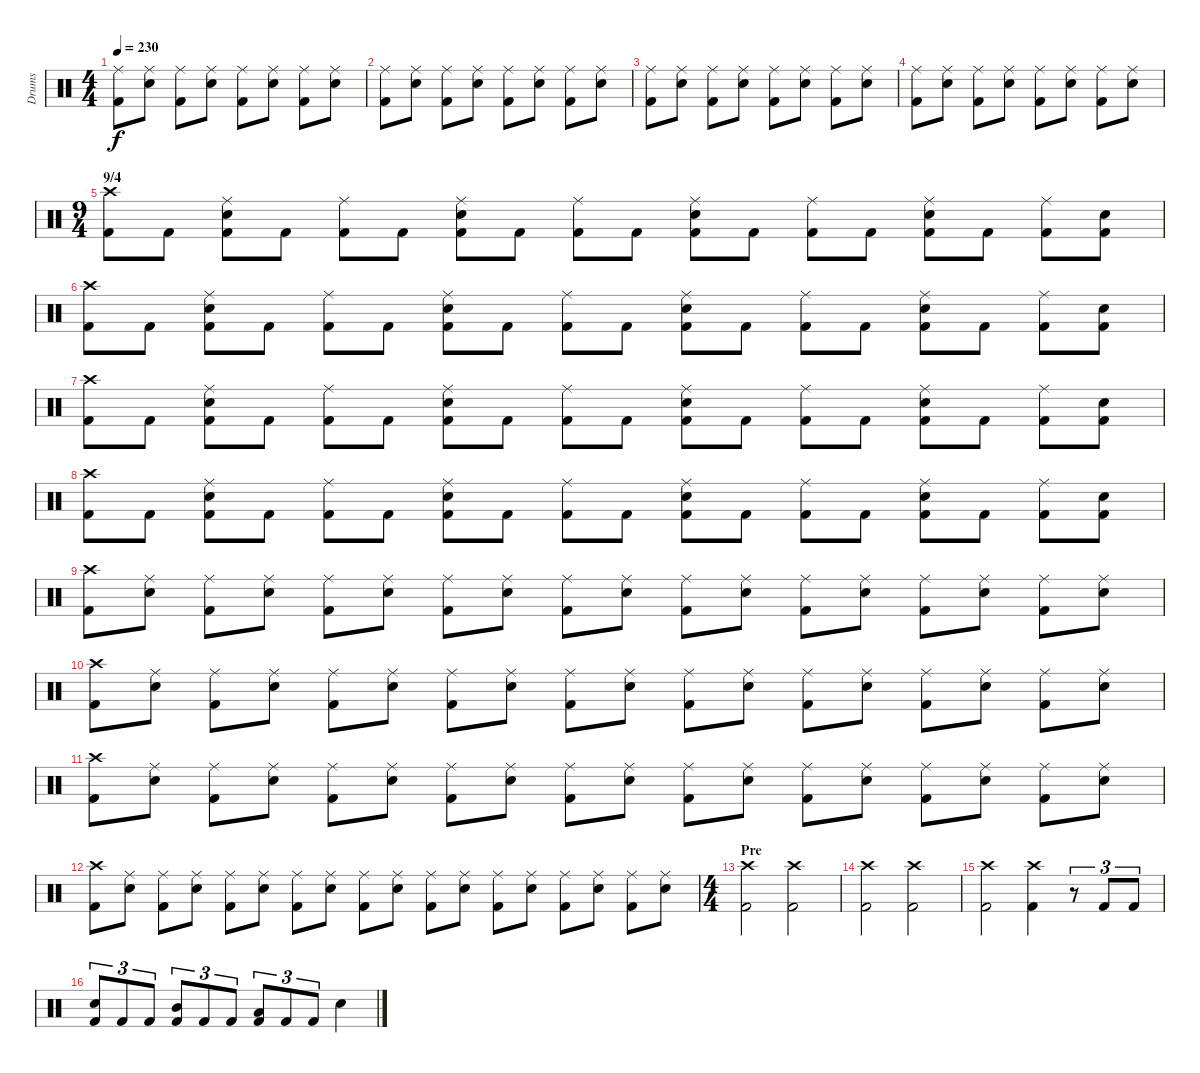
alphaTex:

\track ("Drums" "Drums") {instrument percussion}
\staff {score}
\articulation defaults
\ts (4 4)
\tempo 230
\clef neutral
\ks c
("Ride (middle)" "Kick (hit) 2").8{dy f} ("Ride (middle)" "Snare (hit) 2").8 ("Ride (middle)" "Kick (hit) 2").8 ("Ride (middle)" "Snare (hit) 2").8 ("Ride (middle)" "Kick (hit) 2").8 ("Ride (middle)" "Snare (hit) 2").8 ("Ride (middle)" "Kick (hit) 2").8 ("Ride (middle)" "Snare (hit) 2").8 |
("Ride (middle)" "Kick (hit) 2").8 ("Ride (middle)" "Snare (hit) 2").8 ("Ride (middle)" "Kick (hit) 2").8 ("Ride (middle)" "Snare (hit) 2").8 ("Ride (middle)" "Kick (hit) 2").8 ("Ride (middle)" "Snare (hit) 2").8 ("Ride (middle)" "Kick (hit) 2").8 ("Ride (middle)" "Snare (hit) 2").8 |
("Ride (middle)" "Kick (hit) 2").8 ("Ride (middle)" "Snare (hit) 2").8 ("Ride (middle)" "Kick (hit) 2").8 ("Ride (middle)" "Snare (hit) 2").8 ("Ride (middle)" "Kick (hit) 2").8 ("Ride (middle)" "Snare (hit) 2").8 ("Ride (middle)" "Kick (hit) 2").8 ("Ride (middle)" "Snare (hit) 2").8 |
("Ride (middle)" "Kick (hit) 2").8 ("Ride (middle)" "Snare (hit) 2").8 ("Ride (middle)" "Kick (hit) 2").8 ("Ride (middle)" "Snare (hit) 2").8 ("Ride (middle)" "Kick (hit) 2").8 ("Ride (middle)" "Snare (hit) 2").8 ("Ride (middle)" "Kick (hit) 2").8 ("Ride (middle)" "Snare (hit) 2").8 |
\ts (9 4)
\section ("" "9/4")
("Crash high (hit)" "Kick (hit) 2").8 "Kick (hit) 2".8 ("Ride (middle)" "Snare (hit) 2" "Kick (hit) 2").8 "Kick (hit) 2".8 ("Ride (middle)" "Kick (hit) 2").8 "Kick (hit) 2".8 ("Ride (middle)" "Snare (hit) 2" "Kick (hit) 2").8 "Kick (hit) 2".8 ("Ride (middle)" "Kick (hit) 2").8 "Kick (hit) 2".8 ("Ride (middle)" "Snare (hit) 2" "Kick (hit) 2").8 "Kick (hit) 2".8 ("Ride (middle)" "Kick (hit) 2").8 "Kick (hit) 2".8 ("Ride (middle)" "Snare (hit) 2" "Kick (hit) 2").8 "Kick (hit) 2".8 ("Ride (middle)" "Kick (hit) 2").8 ("Snare (hit) 2" "Kick (hit) 2").8 |
("Crash high (hit)" "Kick (hit) 2").8 "Kick (hit) 2".8 ("Ride (middle)" "Snare (hit) 2" "Kick (hit) 2").8 "Kick (hit) 2".8 ("Ride (middle)" "Kick (hit) 2").8 "Kick (hit) 2".8 ("Ride (middle)" "Snare (hit) 2" "Kick (hit) 2").8 "Kick (hit) 2".8 ("Ride (middle)" "Kick (hit) 2").8 "Kick (hit) 2".8 ("Ride (middle)" "Snare (hit) 2" "Kick (hit) 2").8 "Kick (hit) 2".8 ("Ride (middle)" "Kick (hit) 2").8 "Kick (hit) 2".8 ("Ride (middle)" "Snare (hit) 2" "Kick (hit) 2").8 "Kick (hit) 2".8 ("Ride (middle)" "Kick (hit) 2").8 ("Snare (hit) 2" "Kick (hit) 2").8 |
("Crash high (hit)" "Kick (hit) 2").8 "Kick (hit) 2".8 ("Ride (middle)" "Snare (hit) 2" "Kick (hit) 2").8 "Kick (hit) 2".8 ("Ride (middle)" "Kick (hit) 2").8 "Kick (hit) 2".8 ("Ride (middle)" "Snare (hit) 2" "Kick (hit) 2").8 "Kick (hit) 2".8 ("Ride (middle)" "Kick (hit) 2").8 "Kick (hit) 2".8 ("Ride (middle)" "Snare (hit) 2" "Kick (hit) 2").8 "Kick (hit) 2".8 ("Ride (middle)" "Kick (hit) 2").8 "Kick (hit) 2".8 ("Ride (middle)" "Snare (hit) 2" "Kick (hit) 2").8 "Kick (hit) 2".8 ("Ride (middle)" "Kick (hit) 2").8 ("Snare (hit) 2" "Kick (hit) 2").8 |
("Crash high (hit)" "Kick (hit) 2").8 "Kick (hit) 2".8 ("Ride (middle)" "Snare (hit) 2" "Kick (hit) 2").8 "Kick (hit) 2".8 ("Ride (middle)" "Kick (hit) 2").8 "Kick (hit) 2".8 ("Ride (middle)" "Snare (hit) 2" "Kick (hit) 2").8 "Kick (hit) 2".8 ("Ride (middle)" "Kick (hit) 2").8 "Kick (hit) 2".8 ("Ride (middle)" "Snare (hit) 2" "Kick (hit) 2").8 "Kick (hit) 2".8 ("Ride (middle)" "Kick (hit) 2").8 "Kick (hit) 2".8 ("Ride (middle)" "Snare (hit) 2" "Kick (hit) 2").8 "Kick (hit) 2".8 ("Ride (middle)" "Kick (hit) 2").8 ("Snare (hit) 2" "Kick (hit) 2").8 |
\section ("" "")
("Crash high (hit)" "Kick (hit) 2").8 ("Ride (middle)" "Snare (hit) 2").8 ("Ride (middle)" "Kick (hit) 2").8 ("Ride (middle)" "Snare (hit) 2").8 ("Ride (middle)" "Kick (hit) 2").8 ("Ride (middle)" "Snare (hit) 2").8 ("Ride (middle)" "Kick (hit) 2").8 ("Ride (middle)" "Snare (hit) 2").8 ("Ride (middle)" "Kick (hit) 2").8 ("Ride (middle)" "Snare (hit) 2").8 ("Ride (middle)" "Kick (hit) 2").8 ("Ride (middle)" "Snare (hit) 2").8 ("Ride (middle)" "Kick (hit) 2").8 ("Ride (middle)" "Snare (hit) 2").8 ("Ride (middle)" "Kick (hit) 2").8 ("Ride (middle)" "Snare (hit) 2").8 ("Ride (middle)" "Kick (hit) 2").8 ("Ride (middle)" "Snare (hit) 2").8 |
("Crash high (hit)" "Kick (hit) 2").8 ("Ride (middle)" "Snare (hit) 2").8 ("Ride (middle)" "Kick (hit) 2").8 ("Ride (middle)" "Snare (hit) 2").8 ("Ride (middle)" "Kick (hit) 2").8 ("Ride (middle)" "Snare (hit) 2").8 ("Ride (middle)" "Kick (hit) 2").8 ("Ride (middle)" "Snare (hit) 2").8 ("Ride (middle)" "Kick (hit) 2").8 ("Ride (middle)" "Snare (hit) 2").8 ("Ride (middle)" "Kick (hit) 2").8 ("Ride (middle)" "Snare (hit) 2").8 ("Ride (middle)" "Kick (hit) 2").8 ("Ride (middle)" "Snare (hit) 2").8 ("Ride (middle)" "Kick (hit) 2").8 ("Ride (middle)" "Snare (hit) 2").8 ("Ride (middle)" "Kick (hit) 2").8 ("Ride (middle)" "Snare (hit) 2").8 |
("Crash high (hit)" "Kick (hit) 2").8 ("Ride (middle)" "Snare (hit) 2").8 ("Ride (middle)" "Kick (hit) 2").8 ("Ride (middle)" "Snare (hit) 2").8 ("Ride (middle)" "Kick (hit) 2").8 ("Ride (middle)" "Snare (hit) 2").8 ("Ride (middle)" "Kick (hit) 2").8 ("Ride (middle)" "Snare (hit) 2").8 ("Ride (middle)" "Kick (hit) 2").8 ("Ride (middle)" "Snare (hit) 2").8 ("Ride (middle)" "Kick (hit) 2").8 ("Ride (middle)" "Snare (hit) 2").8 ("Ride (middle)" "Kick (hit) 2").8 ("Ride (middle)" "Snare (hit) 2").8 ("Ride (middle)" "Kick (hit) 2").8 ("Ride (middle)" "Snare (hit) 2").8 ("Ride (middle)" "Kick (hit) 2").8 ("Ride (middle)" "Snare (hit) 2").8 |
("Crash high (hit)" "Kick (hit) 2").8 ("Ride (middle)" "Snare (hit) 2").8 ("Ride (middle)" "Kick (hit) 2").8 ("Ride (middle)" "Snare (hit) 2").8 ("Ride (middle)" "Kick (hit) 2").8 ("Ride (middle)" "Snare (hit) 2").8 ("Ride (middle)" "Kick (hit) 2").8 ("Ride (middle)" "Snare (hit) 2").8 ("Ride (middle)" "Kick (hit) 2").8 ("Ride (middle)" "Snare (hit) 2").8 ("Ride (middle)" "Kick (hit) 2").8 ("Ride (middle)" "Snare (hit) 2").8 ("Ride (middle)" "Kick (hit) 2").8 ("Ride (middle)" "Snare (hit) 2").8 ("Ride (middle)" "Kick (hit) 2").8 ("Ride (middle)" "Snare (hit) 2").8 ("Ride (middle)" "Kick (hit) 2").8 ("Ride (middle)" "Snare (hit) 2").8 |
\ts (4 4)
\section ("" "Pre")
("Crash high (hit)" "Kick (hit) 2").2 ("Crash high (hit)" "Kick (hit) 2").2 |
("Crash high (hit)" "Kick (hit) 2").2 ("Crash high (hit)" "Kick (hit) 2").2 |
("Crash high (hit)" "Kick (hit) 2").2 ("Crash high (hit)" "Kick (hit) 2").4 r.8{tu (3 2)} "Kick (hit) 2".8{tu (3 2)} "Kick (hit) 2".8{tu (3 2)} |
("Snare (hit) 2" "Kick (hit) 2").8{tu (3 2)} "Kick (hit) 2".8{tu (3 2)} "Kick (hit) 2".8{tu (3 2)} ("Mid Tom (hit)" "Kick (hit) 2").8{tu (3 2)} "Kick (hit) 2".8{tu (3 2)} "Kick (hit) 2".8{tu (3 2)} ("Low Tom (hit)" "Kick (hit) 2").8{tu (3 2)} "Kick (hit) 2".8{tu (3 2)} "Kick (hit) 2".8{tu (3 2)} "Snare (hit) 2".4
